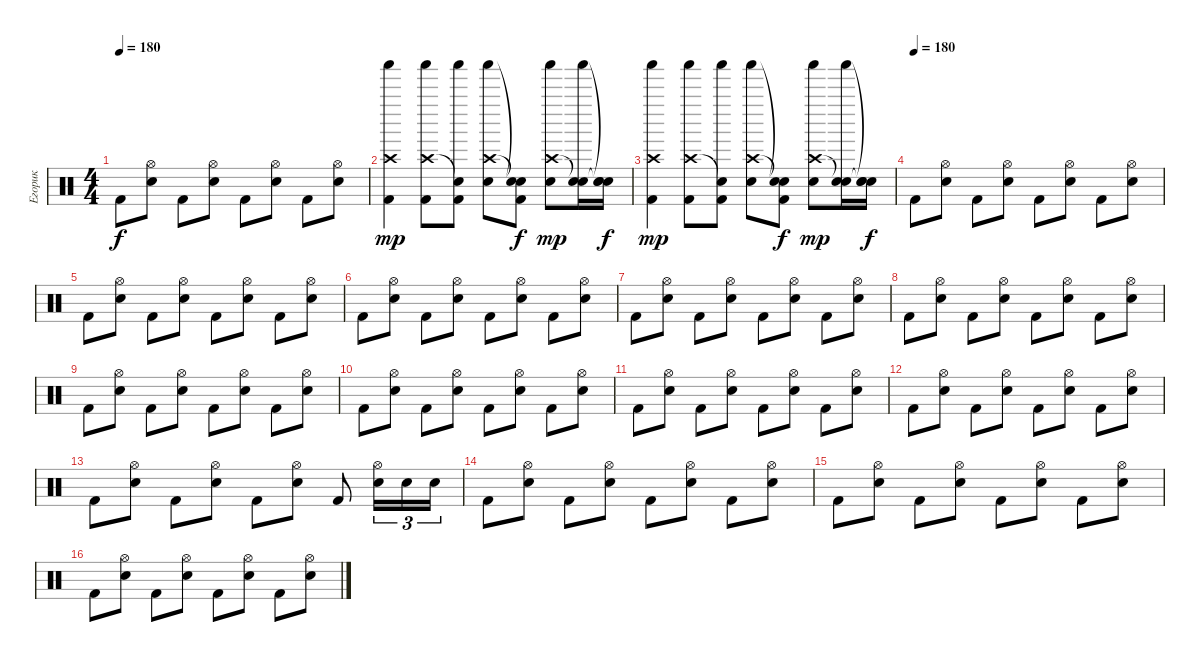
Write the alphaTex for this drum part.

\track ("Егорик" "Егорик") {instrument percussion}
\staff {score}
\articulation defaults
\ts (4 4)
\tempo 180
\clef neutral
\ks c "Kick (hit) 2".8{dy f}
("Hi-Hat (open)" "Electric Snare (hit)").8 "Kick (hit) 2".8 ("Hi-Hat (open)" "Electric Snare (hit)").8 "Kick (hit) 2".8 ("Hi-Hat (open)" "Electric Snare (hit)").8 "Kick (hit) 2".8 ("Hi-Hat (open)" "Electric Snare (hit)").8 |
("Crash high (hit)" "Shaker (hit)" "Kick (hit) 2").4{dy mp} ("Crash high (hit)" "Shaker (hit)" "Kick (hit) 2").8 ("Snare (hit)"{t} "Shaker (hit)" "Kick (hit) 2").8 ("Crash high (hit)" "Shaker (hit)" "Snare (hit) 2").8 ("Snare (hit)"{t} "Snare (hit)"{t} "Kick (hit) 2").8{dy f} ("Crash high (hit)" "Shaker (hit)" "Snare (hit) 2").8{dy mp} ("Snare (hit)"{t} "Shaker (hit)" "Snare (hit) 2").16 ("Snare (hit)"{t} "Snare (hit)"{t} "Snare (hit) 2").16{dy f} |
("Crash high (hit)" "Shaker (hit)" "Kick (hit) 2").4{dy mp} ("Crash high (hit)" "Shaker (hit)" "Kick (hit) 2").8 ("Snare (hit)"{t} "Shaker (hit)" "Kick (hit) 2").8 ("Crash high (hit)" "Shaker (hit)" "Snare (hit) 2").8 ("Snare (hit)"{t} "Snare (hit)"{t} "Kick (hit) 2").8{dy f} ("Crash high (hit)" "Shaker (hit)" "Snare (hit) 2").8{dy mp} ("Snare (hit)"{t} "Shaker (hit)" "Snare (hit) 2").16 ("Snare (hit)"{t} "Snare (hit)"{t} "Snare (hit) 2").16{dy f} |
\tempo (180)
"Kick (hit) 2".8 ("Hi-Hat (open)" "Electric Snare (hit)").8 "Kick (hit) 2".8 ("Hi-Hat (open)" "Electric Snare (hit)").8 "Kick (hit) 2".8 ("Hi-Hat (open)" "Electric Snare (hit)").8 "Kick (hit) 2".8 ("Hi-Hat (open)" "Electric Snare (hit)").8 |
"Kick (hit) 2".8 ("Hi-Hat (open)" "Electric Snare (hit)").8 "Kick (hit) 2".8 ("Hi-Hat (open)" "Electric Snare (hit)").8 "Kick (hit) 2".8 ("Hi-Hat (open)" "Electric Snare (hit)").8 "Kick (hit) 2".8 ("Hi-Hat (open)" "Electric Snare (hit)").8 |
"Kick (hit) 2".8 ("Hi-Hat (open)" "Electric Snare (hit)").8 "Kick (hit) 2".8 ("Hi-Hat (open)" "Electric Snare (hit)").8 "Kick (hit) 2".8 ("Hi-Hat (open)" "Electric Snare (hit)").8 "Kick (hit) 2".8 ("Hi-Hat (open)" "Electric Snare (hit)").8 |
"Kick (hit) 2".8 ("Hi-Hat (open)" "Electric Snare (hit)").8 "Kick (hit) 2".8 ("Hi-Hat (open)" "Electric Snare (hit)").8 "Kick (hit) 2".8 ("Hi-Hat (open)" "Electric Snare (hit)").8 "Kick (hit) 2".8 ("Hi-Hat (open)" "Electric Snare (hit)").8 |
"Kick (hit) 2".8 ("Hi-Hat (open)" "Electric Snare (hit)").8 "Kick (hit) 2".8 ("Hi-Hat (open)" "Electric Snare (hit)").8 "Kick (hit) 2".8 ("Hi-Hat (open)" "Electric Snare (hit)").8 "Kick (hit) 2".8 ("Hi-Hat (open)" "Electric Snare (hit)").8 |
"Kick (hit) 2".8 ("Hi-Hat (open)" "Electric Snare (hit)").8 "Kick (hit) 2".8 ("Hi-Hat (open)" "Electric Snare (hit)").8 "Kick (hit) 2".8 ("Hi-Hat (open)" "Electric Snare (hit)").8 "Kick (hit) 2".8 ("Hi-Hat (open)" "Electric Snare (hit)").8 |
"Kick (hit) 2".8 ("Hi-Hat (open)" "Electric Snare (hit)").8 "Kick (hit) 2".8 ("Hi-Hat (open)" "Electric Snare (hit)").8 "Kick (hit) 2".8 ("Hi-Hat (open)" "Electric Snare (hit)").8 "Kick (hit) 2".8 ("Hi-Hat (open)" "Electric Snare (hit)").8 |
"Kick (hit) 2".8 ("Hi-Hat (open)" "Electric Snare (hit)").8 "Kick (hit) 2".8 ("Hi-Hat (open)" "Electric Snare (hit)").8 "Kick (hit) 2".8 ("Hi-Hat (open)" "Electric Snare (hit)").8 "Kick (hit) 2".8 ("Hi-Hat (open)" "Electric Snare (hit)").8 |
"Kick (hit) 2".8 ("Hi-Hat (open)" "Electric Snare (hit)").8 "Kick (hit) 2".8 ("Hi-Hat (open)" "Electric Snare (hit)").8 "Kick (hit) 2".8 ("Hi-Hat (open)" "Electric Snare (hit)").8 "Kick (hit) 2".8 ("Hi-Hat (open)" "Electric Snare (hit)").8 |
"Kick (hit) 2".8 ("Hi-Hat (open)" "Electric Snare (hit)").8 "Kick (hit) 2".8 ("Hi-Hat (open)" "Electric Snare (hit)").8 "Kick (hit) 2".8 ("Hi-Hat (open)" "Electric Snare (hit)").8 "Kick (hit) 2".8 ("Hi-Hat (open)" "Electric Snare (hit)").16{tu (3 2)} "Electric Snare (hit)".16{tu (3 2)} "Electric Snare (hit)".16{tu (3 2)} |
"Kick (hit) 2".8 ("Hi-Hat (open)" "Electric Snare (hit)").8 "Kick (hit) 2".8 ("Hi-Hat (open)" "Electric Snare (hit)").8 "Kick (hit) 2".8 ("Hi-Hat (open)" "Electric Snare (hit)").8 "Kick (hit) 2".8 ("Hi-Hat (open)" "Electric Snare (hit)").8 |
"Kick (hit) 2".8 ("Hi-Hat (open)" "Electric Snare (hit)").8 "Kick (hit) 2".8 ("Hi-Hat (open)" "Electric Snare (hit)").8 "Kick (hit) 2".8 ("Hi-Hat (open)" "Electric Snare (hit)").8 "Kick (hit) 2".8 ("Hi-Hat (open)" "Electric Snare (hit)").8 |
"Kick (hit) 2".8 ("Hi-Hat (open)" "Electric Snare (hit)").8 "Kick (hit) 2".8 ("Hi-Hat (open)" "Electric Snare (hit)").8 "Kick (hit) 2".8 ("Hi-Hat (open)" "Electric Snare (hit)").8 "Kick (hit) 2".8 ("Hi-Hat (open)" "Electric Snare (hit)").8
